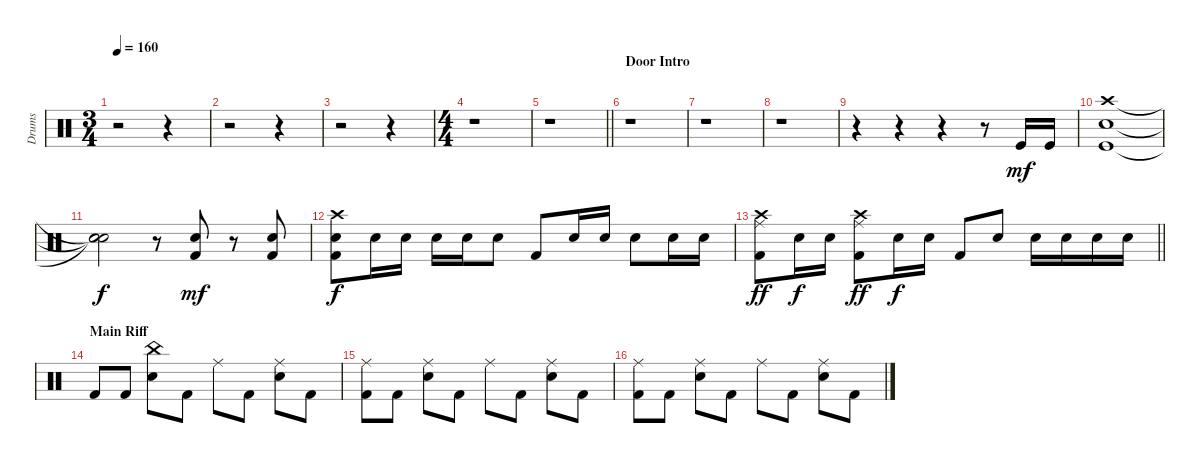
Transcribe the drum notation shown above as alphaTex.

\track ("Drums" "Drums") {instrument percussion}
\staff {score}
\articulation defaults
\ts (3 4)
\tempo 160
\clef neutral
\ks c
r.2{dy mf} r.4 |
r.2 r.4 |
r.2 r.4 |
\ts (4 4)
r.1 |
\barLineRight lightlight
r.1 |
\section ("" "Door Intro")
r.1 |
r.1 |
r.1 |
r.4 r.4 r.4 r.8 "Kick (hit)".16 "Kick (hit)".16 |
("Crash high (hit)" "Electric Snare (hit)" "Kick (hit)").1 |
("Snare (hit)"{t} "Snare (hit)"{t} "Snare (hit)"{t}).2{dy f} r.8 ("Electric Snare (hit)" "Kick (hit) 2").8{dy mf} r.8 ("Electric Snare (hit)" "Kick (hit) 2").8 |
("Crash high (hit)" "Electric Snare (hit)" "Kick (hit) 2").8{dy f} "Electric Snare (hit)".16 "Electric Snare (hit)".16 "Electric Snare (hit)".16 "Electric Snare (hit)".16 "Electric Snare (hit)".8 "Kick (hit) 2".8 "Electric Snare (hit)".16 "Electric Snare (hit)".16 "Electric Snare (hit)".8 "Electric Snare (hit)".16 "Electric Snare (hit)".16 |
\barLineRight lightlight
("Crash high (hit)" "Ride (middle)" "Kick (hit) 2").8{dy ff} "Electric Snare (hit)".16{dy f} "Electric Snare (hit)".16 ("Crash high (hit)" "Ride (middle)" "Kick (hit) 2").8{dy ff} "Electric Snare (hit)".16{dy f} "Electric Snare (hit)".16 "Kick (hit) 2".8 "Electric Snare (hit)".8 "Electric Snare (hit)".16 "Electric Snare (hit)".16 "Electric Snare (hit)".16 "Electric Snare (hit)".16 |
\section ("" "Main Riff")
"Kick (hit) 2".8 "Kick (hit) 2".8 ("China (hit)" "Electric Snare (hit)").8 "Kick (hit) 2".8 "Ride (middle)".8 "Kick (hit) 2".8 ("Ride (middle)" "Electric Snare (hit)").8 "Kick (hit) 2".8 |
("Ride (middle)" "Kick (hit) 2").8 "Kick (hit) 2".8 ("Ride (middle)" "Electric Snare (hit)").8 "Kick (hit) 2".8 "Ride (middle)".8 "Kick (hit) 2".8 ("Ride (middle)" "Electric Snare (hit)").8 "Kick (hit) 2".8 |
("Ride (middle)" "Kick (hit) 2").8 "Kick (hit) 2".8 ("Ride (middle)" "Electric Snare (hit)").8 "Kick (hit) 2".8 "Ride (middle)".8 "Kick (hit) 2".8 ("Ride (middle)" "Electric Snare (hit)").8 "Kick (hit) 2".8
